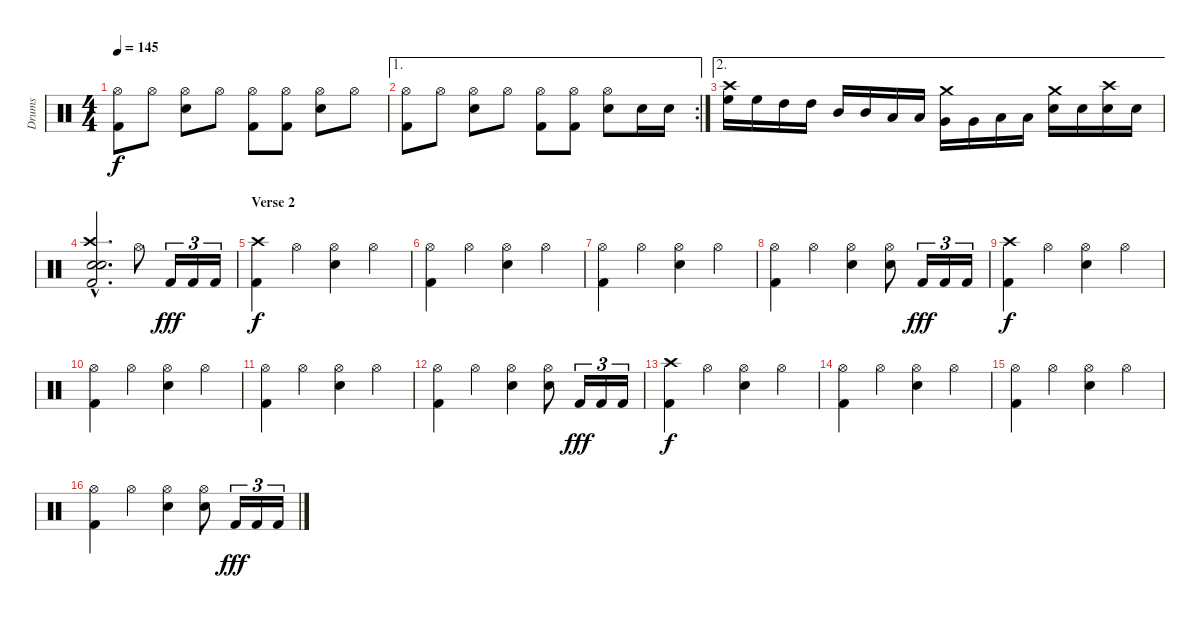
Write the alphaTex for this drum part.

\track ("Drums" "Drums") {instrument percussion}
\staff {score}
\articulation defaults
\ts (4 4)
\tempo 145
\clef neutral
\ks c
("Hi-Hat (open)" "Kick (hit) 2").8{dy f} "Hi-Hat (open)".8 ("Hi-Hat (open)" "Electric Snare (hit)").8 "Hi-Hat (open)".8 ("Hi-Hat (open)" "Kick (hit) 2").8 ("Hi-Hat (open)" "Kick (hit) 2").8 ("Hi-Hat (open)" "Electric Snare (hit)").8 "Hi-Hat (open)".8 |
\ae 1
\rc 2
("Hi-Hat (open)" "Kick (hit) 2").8 "Hi-Hat (open)".8 ("Hi-Hat (open)" "Electric Snare (hit)").8 "Hi-Hat (open)".8 ("Hi-Hat (open)" "Kick (hit) 2").8 ("Hi-Hat (open)" "Kick (hit) 2").8 ("Hi-Hat (open)" "Electric Snare (hit)").8 "Electric Snare (hit)".16 "Electric Snare (hit)".16 |
\ae 2
("Crash high (hit)" "High Floor Tom (hit)").16 "High Floor Tom (hit)".16 "High Tom (hit)".16 "High Tom (hit)".16 "Mid Tom (hit)".16 "Mid Tom (hit)".16 "Low Tom (hit)".16 "Low Tom (hit)".16 ("Crash medium (hit)" "Very Low Tom (hit)").16 "Very Low Tom (hit)".16 "Low Floor Tom (hit)".16 "Low Floor Tom (hit)".16 ("Crash medium (hit)" "Electric Snare (hit)").16 "Electric Snare (hit)".16 ("Crash high (hit)" "Snare (hit) 2").16 "Snare (hit) 2".16 |
("Crash high (hit)"{hac} "Snare (hit) 2"{hac} "Electric Snare (hit)"{hac} "Kick (hit) 2"{hac}).2{d} "Hi-Hat (open)".8 "Kick (hit) 2".16{tu (3 2) dy fff} "Kick (hit) 2".16{tu (3 2)} "Kick (hit) 2".16{tu (3 2)} |
\section ("" "Verse 2")
("Crash high (hit)" "Kick (hit) 2").4{dy f} "Hi-Hat (open)".4 ("Hi-Hat (open)" "Electric Snare (hit)").4 "Hi-Hat (open)".4 |
("Hi-Hat (open)" "Kick (hit) 2").4 "Hi-Hat (open)".4 ("Hi-Hat (open)" "Electric Snare (hit)").4 "Hi-Hat (open)".4 |
("Hi-Hat (open)" "Kick (hit) 2").4 "Hi-Hat (open)".4 ("Hi-Hat (open)" "Electric Snare (hit)").4 "Hi-Hat (open)".4 |
("Hi-Hat (open)" "Kick (hit) 2").4 "Hi-Hat (open)".4 ("Hi-Hat (open)" "Electric Snare (hit)").4 ("Hi-Hat (open)" "Snare (hit) 2").8 "Kick (hit) 2".16{tu (3 2) dy fff} "Kick (hit) 2".16{tu (3 2)} "Kick (hit) 2".16{tu (3 2)} |
("Crash high (hit)" "Kick (hit) 2").4{dy f} "Hi-Hat (open)".4 ("Hi-Hat (open)" "Electric Snare (hit)").4 "Hi-Hat (open)".4 |
("Hi-Hat (open)" "Kick (hit) 2").4 "Hi-Hat (open)".4 ("Hi-Hat (open)" "Electric Snare (hit)").4 "Hi-Hat (open)".4 |
("Hi-Hat (open)" "Kick (hit) 2").4 "Hi-Hat (open)".4 ("Hi-Hat (open)" "Electric Snare (hit)").4 "Hi-Hat (open)".4 |
("Hi-Hat (open)" "Kick (hit) 2").4 "Hi-Hat (open)".4 ("Hi-Hat (open)" "Electric Snare (hit)").4 ("Hi-Hat (open)" "Snare (hit) 2").8 "Kick (hit) 2".16{tu (3 2) dy fff} "Kick (hit) 2".16{tu (3 2)} "Kick (hit) 2".16{tu (3 2)} |
("Crash high (hit)" "Kick (hit) 2").4{dy f} "Hi-Hat (open)".4 ("Hi-Hat (open)" "Electric Snare (hit)").4 "Hi-Hat (open)".4 |
("Hi-Hat (open)" "Kick (hit) 2").4 "Hi-Hat (open)".4 ("Hi-Hat (open)" "Electric Snare (hit)").4 "Hi-Hat (open)".4 |
("Hi-Hat (open)" "Kick (hit) 2").4 "Hi-Hat (open)".4 ("Hi-Hat (open)" "Electric Snare (hit)").4 "Hi-Hat (open)".4 |
("Hi-Hat (open)" "Kick (hit) 2").4 "Hi-Hat (open)".4 ("Hi-Hat (open)" "Electric Snare (hit)").4 ("Hi-Hat (open)" "Snare (hit) 2").8 "Kick (hit) 2".16{tu (3 2) dy fff} "Kick (hit) 2".16{tu (3 2)} "Kick (hit) 2".16{tu (3 2)}
